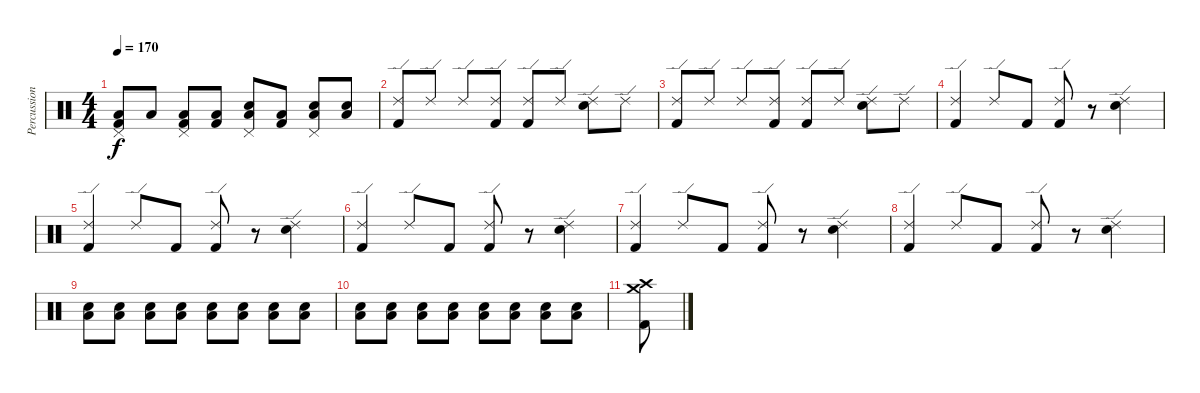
\track ("Percussion" "Percussion") {instrument percussion}
\staff {score}
\articulation defaults
\ts (4 4)
\tempo 170
\clef neutral
\ks c
("Pedal Hi-Hat (hit)" "Low Tom (hit)" "Kick (hit) 2").8{dy f} "Low Tom (hit)".8 ("Pedal Hi-Hat (hit)" "Low Tom (hit)" "Kick (hit) 2").8 ("Low Tom (hit)" "Kick (hit) 2").8 ("Pedal Hi-Hat (hit)" "Low Tom (hit)" "Snare (hit) 2").8 ("Low Tom (hit)" "Kick (hit) 2").8 ("Pedal Hi-Hat (hit)" "Low Tom (hit)" "Snare (hit) 2").8 ("Low Tom (hit)" "Snare (hit) 2").8 |
("Kick (hit) 2" "Ride (edge) 2").8 "Ride (edge) 2".8 "Ride (edge) 2".8 ("Kick (hit) 2" "Ride (edge) 2").8 ("Kick (hit) 2" "Ride (edge) 2").8 "Ride (edge) 2".8 ("Snare (hit) 2" "Ride (edge) 2").8 "Ride (edge) 2".8 |
("Kick (hit) 2" "Ride (edge) 2").8 "Ride (edge) 2".8 "Ride (edge) 2".8 ("Kick (hit) 2" "Ride (edge) 2").8 ("Kick (hit) 2" "Ride (edge) 2").8 "Ride (edge) 2".8 ("Snare (hit) 2" "Ride (edge) 2").8 "Ride (edge) 2".8 |
("Kick (hit) 2" "Ride (edge) 2").4 "Ride (edge) 2".8 "Kick (hit) 2".8 ("Kick (hit) 2" "Ride (edge) 2").8 r.8 ("Snare (hit) 2" "Ride (edge) 2").4 |
("Kick (hit) 2" "Ride (edge) 2").4 "Ride (edge) 2".8 "Kick (hit) 2".8 ("Kick (hit) 2" "Ride (edge) 2").8 r.8 ("Snare (hit) 2" "Ride (edge) 2").4 |
("Kick (hit) 2" "Ride (edge) 2").4 "Ride (edge) 2".8 "Kick (hit) 2".8 ("Kick (hit) 2" "Ride (edge) 2").8 r.8 ("Snare (hit) 2" "Ride (edge) 2").4 |
("Kick (hit) 2" "Ride (edge) 2").4 "Ride (edge) 2".8 "Kick (hit) 2".8 ("Kick (hit) 2" "Ride (edge) 2").8 r.8 ("Snare (hit) 2" "Ride (edge) 2").4 |
("Kick (hit) 2" "Ride (edge) 2").4 "Ride (edge) 2".8 "Kick (hit) 2".8 ("Kick (hit) 2" "Ride (edge) 2").8 r.8 ("Snare (hit) 2" "Ride (edge) 2").4 |
("Snare (hit) 2" "Low Tom (hit)").8 ("Snare (hit) 2" "Low Tom (hit)").8 ("Snare (hit) 2" "Low Tom (hit)").8 ("Snare (hit) 2" "Low Tom (hit)").8 ("Snare (hit) 2" "Low Tom (hit)").8 ("Snare (hit) 2" "Low Tom (hit)").8 ("Snare (hit) 2" "Low Tom (hit)").8 ("Snare (hit) 2" "Low Tom (hit)").8 |
("Snare (hit) 2" "Low Tom (hit)").8 ("Snare (hit) 2" "Low Tom (hit)").8 ("Snare (hit) 2" "Low Tom (hit)").8 ("Snare (hit) 2" "Low Tom (hit)").8 ("Snare (hit) 2" "Low Tom (hit)").8 ("Snare (hit) 2" "Low Tom (hit)").8 ("Snare (hit) 2" "Low Tom (hit)").8 ("Snare (hit) 2" "Low Tom (hit)").8 |
("Crash medium (hit)" "Crash high (hit)" "Kick (hit) 2").8
